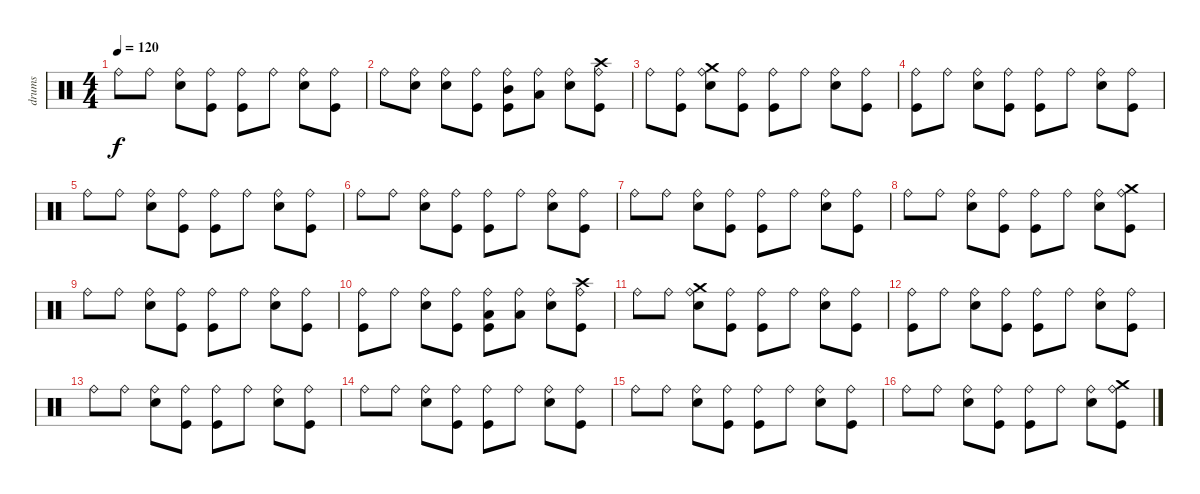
\track ("drums" "drums") {instrument percussion}
\staff {score}
\articulation defaults
\ts (4 4)
\tempo 120
\clef neutral
\ks c "Ride (bell)".8{dy f} "Ride (bell)".8
("Electric Snare (hit)" "Ride (bell)").8 ("Kick (hit)" "Ride (bell)").8 ("Kick (hit)" "Ride (bell)").8 "Ride (bell)".8 ("Electric Snare (hit)" "Ride (bell)").8 ("Kick (hit)" "Ride (bell)").8 |
"Ride (bell)".8 ("Electric Snare (hit)" "Ride (bell)").8 ("Electric Snare (hit)" "Ride (bell)").8 ("Kick (hit)" "Ride (bell)").8 ("Kick (hit)" "Ride (bell)" "Mid Tom (hit)").8 ("Ride (bell)" "Low Tom (hit)").8 ("Electric Snare (hit)" "Ride (bell)").8 ("Kick (hit)" "Ride (bell)" "Crash high (hit)").8 |
"Ride (bell)".8 ("Kick (hit)" "Ride (bell)").8 ("Electric Snare (hit)" "Ride (bell)" "Crash medium (hit)").8 ("Kick (hit)" "Ride (bell)").8 ("Kick (hit)" "Ride (bell)").8 "Ride (bell)".8 ("Electric Snare (hit)" "Ride (bell)").8 ("Kick (hit)" "Ride (bell)").8 |
("Kick (hit)" "Ride (bell)").8 "Ride (bell)".8 ("Electric Snare (hit)" "Ride (bell)").8 ("Kick (hit)" "Ride (bell)").8 ("Kick (hit)" "Ride (bell)").8 "Ride (bell)".8 ("Electric Snare (hit)" "Ride (bell)").8 ("Kick (hit)" "Ride (bell)").8 |
"Ride (bell)".8 "Ride (bell)".8 ("Electric Snare (hit)" "Ride (bell)").8 ("Kick (hit)" "Ride (bell)").8 ("Kick (hit)" "Ride (bell)").8 "Ride (bell)".8 ("Electric Snare (hit)" "Ride (bell)").8 ("Kick (hit)" "Ride (bell)").8 |
"Ride (bell)".8 "Ride (bell)".8 ("Electric Snare (hit)" "Ride (bell)").8 ("Kick (hit)" "Ride (bell)").8 ("Kick (hit)" "Ride (bell)").8 "Ride (bell)".8 ("Electric Snare (hit)" "Ride (bell)").8 ("Kick (hit)" "Ride (bell)").8 |
"Ride (bell)".8 "Ride (bell)".8 ("Electric Snare (hit)" "Ride (bell)").8 ("Kick (hit)" "Ride (bell)").8 ("Kick (hit)" "Ride (bell)").8 "Ride (bell)".8 ("Electric Snare (hit)" "Ride (bell)").8 ("Kick (hit)" "Ride (bell)").8 |
"Ride (bell)".8 "Ride (bell)".8 ("Electric Snare (hit)" "Ride (bell)").8 ("Kick (hit)" "Ride (bell)").8 ("Kick (hit)" "Ride (bell)").8 "Ride (bell)".8 ("Electric Snare (hit)" "Ride (bell)").8 ("Kick (hit)" "Ride (bell)" "Crash medium (hit)").8 |
"Ride (bell)".8 "Ride (bell)".8 ("Electric Snare (hit)" "Ride (bell)").8 ("Kick (hit)" "Ride (bell)").8 ("Kick (hit)" "Ride (bell)").8 "Ride (bell)".8 ("Electric Snare (hit)" "Ride (bell)").8 ("Kick (hit)" "Ride (bell)").8 |
("Kick (hit)" "Ride (bell)").8 "Ride (bell)".8 ("Electric Snare (hit)" "Ride (bell)").8 ("Kick (hit)" "Ride (bell)").8 ("Kick (hit)" "Low Tom (hit)" "Ride (bell)").8 ("Low Tom (hit)" "Ride (bell)").8 ("Electric Snare (hit)" "Ride (bell)").8 ("Kick (hit)" "Ride (bell)" "Crash high (hit)").8 |
"Ride (bell)".8 "Ride (bell)".8 ("Electric Snare (hit)" "Ride (bell)" "Crash medium (hit)").8 ("Kick (hit)" "Ride (bell)").8 ("Kick (hit)" "Ride (bell)").8 "Ride (bell)".8 ("Electric Snare (hit)" "Ride (bell)").8 ("Kick (hit)" "Ride (bell)").8 |
("Kick (hit)" "Ride (bell)").8 "Ride (bell)".8 ("Electric Snare (hit)" "Ride (bell)").8 ("Kick (hit)" "Ride (bell)").8 ("Kick (hit)" "Ride (bell)").8 "Ride (bell)".8 ("Electric Snare (hit)" "Ride (bell)").8 ("Kick (hit)" "Ride (bell)").8 |
"Ride (bell)".8 "Ride (bell)".8 ("Electric Snare (hit)" "Ride (bell)").8 ("Kick (hit)" "Ride (bell)").8 ("Kick (hit)" "Ride (bell)").8 "Ride (bell)".8 ("Electric Snare (hit)" "Ride (bell)").8 ("Kick (hit)" "Ride (bell)").8 |
"Ride (bell)".8 "Ride (bell)".8 ("Electric Snare (hit)" "Ride (bell)").8 ("Kick (hit)" "Ride (bell)").8 ("Kick (hit)" "Ride (bell)").8 "Ride (bell)".8 ("Electric Snare (hit)" "Ride (bell)").8 ("Kick (hit)" "Ride (bell)").8 |
"Ride (bell)".8 "Ride (bell)".8 ("Electric Snare (hit)" "Ride (bell)").8 ("Kick (hit)" "Ride (bell)").8 ("Kick (hit)" "Ride (bell)").8 "Ride (bell)".8 ("Electric Snare (hit)" "Ride (bell)").8 ("Kick (hit)" "Ride (bell)").8 |
"Ride (bell)".8 "Ride (bell)".8 ("Electric Snare (hit)" "Ride (bell)").8 ("Kick (hit)" "Ride (bell)").8 ("Kick (hit)" "Ride (bell)").8 "Ride (bell)".8 ("Electric Snare (hit)" "Ride (bell)").8 ("Kick (hit)" "Ride (bell)" "Crash medium (hit)").8
